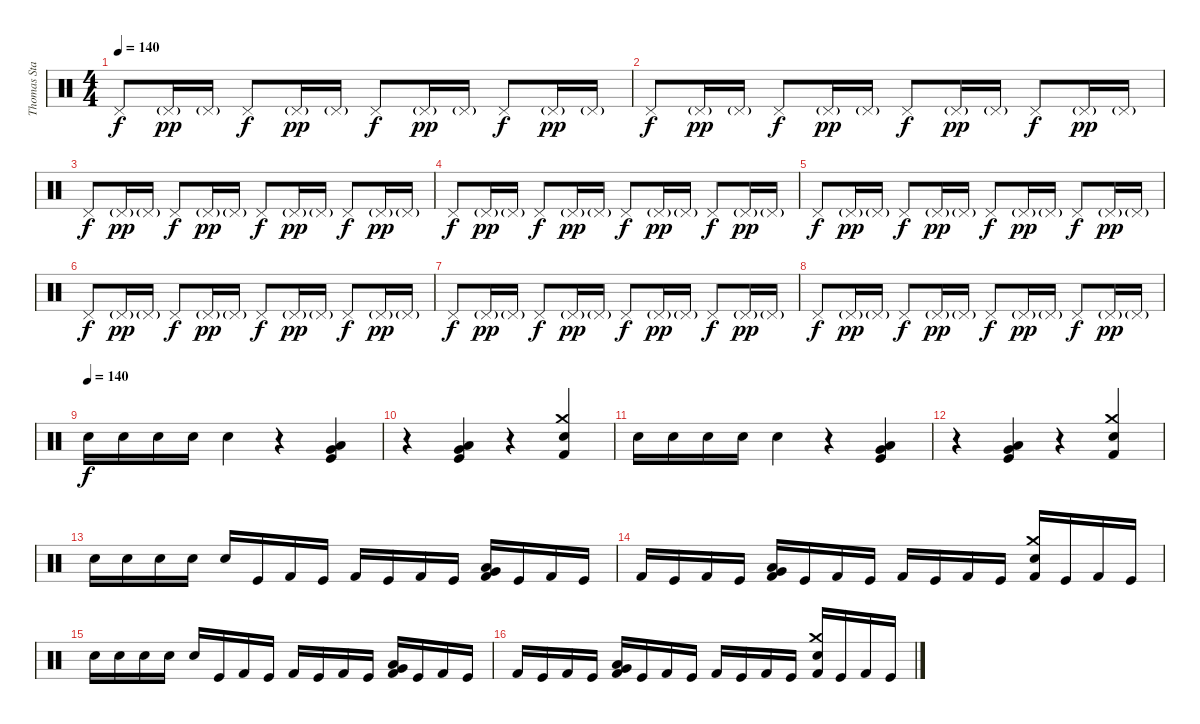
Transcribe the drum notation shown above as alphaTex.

\track ("Thomas Stauch" "Thomas Sta") {instrument percussion}
\staff {score}
\articulation defaults
\ts (4 4)
\tempo 140
\tempo 135
\tempo 140
\clef neutral
\ks c "Pedal Hi-Hat (hit)".8{dy f} "Pedal Hi-Hat (hit)"{g}.16{dy pp} "Pedal Hi-Hat (hit)"{g}.16 "Pedal Hi-Hat (hit)".8{dy f} "Pedal Hi-Hat (hit)"{g}.16{dy pp} "Pedal Hi-Hat (hit)"{g}.16 "Pedal Hi-Hat (hit)".8{dy f} "Pedal Hi-Hat (hit)"{g}.16{dy pp} "Pedal Hi-Hat (hit)"{g}.16 "Pedal Hi-Hat (hit)".8{dy f} "Pedal Hi-Hat (hit)"{g}.16{dy pp} "Pedal Hi-Hat (hit)"{g}.16
|
"Pedal Hi-Hat (hit)".8{dy f} "Pedal Hi-Hat (hit)"{g}.16{dy pp} "Pedal Hi-Hat (hit)"{g}.16 "Pedal Hi-Hat (hit)".8{dy f} "Pedal Hi-Hat (hit)"{g}.16{dy pp} "Pedal Hi-Hat (hit)"{g}.16 "Pedal Hi-Hat (hit)".8{dy f} "Pedal Hi-Hat (hit)"{g}.16{dy pp} "Pedal Hi-Hat (hit)"{g}.16 "Pedal Hi-Hat (hit)".8{dy f} "Pedal Hi-Hat (hit)"{g}.16{dy pp} "Pedal Hi-Hat (hit)"{g}.16 |
"Pedal Hi-Hat (hit)".8{dy f} "Pedal Hi-Hat (hit)"{g}.16{dy pp} "Pedal Hi-Hat (hit)"{g}.16 "Pedal Hi-Hat (hit)".8{dy f} "Pedal Hi-Hat (hit)"{g}.16{dy pp} "Pedal Hi-Hat (hit)"{g}.16 "Pedal Hi-Hat (hit)".8{dy f} "Pedal Hi-Hat (hit)"{g}.16{dy pp} "Pedal Hi-Hat (hit)"{g}.16 "Pedal Hi-Hat (hit)".8{dy f} "Pedal Hi-Hat (hit)"{g}.16{dy pp} "Pedal Hi-Hat (hit)"{g}.16 |
"Pedal Hi-Hat (hit)".8{dy f} "Pedal Hi-Hat (hit)"{g}.16{dy pp} "Pedal Hi-Hat (hit)"{g}.16 "Pedal Hi-Hat (hit)".8{dy f} "Pedal Hi-Hat (hit)"{g}.16{dy pp} "Pedal Hi-Hat (hit)"{g}.16 "Pedal Hi-Hat (hit)".8{dy f} "Pedal Hi-Hat (hit)"{g}.16{dy pp} "Pedal Hi-Hat (hit)"{g}.16 "Pedal Hi-Hat (hit)".8{dy f} "Pedal Hi-Hat (hit)"{g}.16{dy pp} "Pedal Hi-Hat (hit)"{g}.16 |
"Pedal Hi-Hat (hit)".8{dy f} "Pedal Hi-Hat (hit)"{g}.16{dy pp} "Pedal Hi-Hat (hit)"{g}.16 "Pedal Hi-Hat (hit)".8{dy f} "Pedal Hi-Hat (hit)"{g}.16{dy pp} "Pedal Hi-Hat (hit)"{g}.16 "Pedal Hi-Hat (hit)".8{dy f} "Pedal Hi-Hat (hit)"{g}.16{dy pp} "Pedal Hi-Hat (hit)"{g}.16 "Pedal Hi-Hat (hit)".8{dy f} "Pedal Hi-Hat (hit)"{g}.16{dy pp} "Pedal Hi-Hat (hit)"{g}.16 |
"Pedal Hi-Hat (hit)".8{dy f} "Pedal Hi-Hat (hit)"{g}.16{dy pp} "Pedal Hi-Hat (hit)"{g}.16 "Pedal Hi-Hat (hit)".8{dy f} "Pedal Hi-Hat (hit)"{g}.16{dy pp} "Pedal Hi-Hat (hit)"{g}.16 "Pedal Hi-Hat (hit)".8{dy f} "Pedal Hi-Hat (hit)"{g}.16{dy pp} "Pedal Hi-Hat (hit)"{g}.16 "Pedal Hi-Hat (hit)".8{dy f} "Pedal Hi-Hat (hit)"{g}.16{dy pp} "Pedal Hi-Hat (hit)"{g}.16 |
"Pedal Hi-Hat (hit)".8{dy f} "Pedal Hi-Hat (hit)"{g}.16{dy pp} "Pedal Hi-Hat (hit)"{g}.16 "Pedal Hi-Hat (hit)".8{dy f} "Pedal Hi-Hat (hit)"{g}.16{dy pp} "Pedal Hi-Hat (hit)"{g}.16 "Pedal Hi-Hat (hit)".8{dy f} "Pedal Hi-Hat (hit)"{g}.16{dy pp} "Pedal Hi-Hat (hit)"{g}.16 "Pedal Hi-Hat (hit)".8{dy f} "Pedal Hi-Hat (hit)"{g}.16{dy pp} "Pedal Hi-Hat (hit)"{g}.16 |
"Pedal Hi-Hat (hit)".8{dy f} "Pedal Hi-Hat (hit)"{g}.16{dy pp} "Pedal Hi-Hat (hit)"{g}.16 "Pedal Hi-Hat (hit)".8{dy f} "Pedal Hi-Hat (hit)"{g}.16{dy pp} "Pedal Hi-Hat (hit)"{g}.16 "Pedal Hi-Hat (hit)".8{dy f} "Pedal Hi-Hat (hit)"{g}.16{dy pp} "Pedal Hi-Hat (hit)"{g}.16 "Pedal Hi-Hat (hit)".8{dy f} "Pedal Hi-Hat (hit)"{g}.16{dy pp} "Pedal Hi-Hat (hit)"{g}.16 |
\tempo (140)
"Electric Snare (hit)".16{dy f} "Electric Snare (hit)".16 "Electric Snare (hit)".16 "Electric Snare (hit)".16 "Electric Snare (hit)".4 r.4 ("Low Tom (hit)" "Very Low Tom (hit)" "Kick (hit)").4 |
r.4 ("Low Tom (hit)" "Very Low Tom (hit)" "Kick (hit)").4 r.4 ("Crash medium (hit)" "Electric Snare (hit)" "Kick (hit) 2").4 |
"Electric Snare (hit)".16 "Electric Snare (hit)".16 "Electric Snare (hit)".16 "Electric Snare (hit)".16 "Electric Snare (hit)".4 r.4 ("Low Tom (hit)" "Very Low Tom (hit)" "Kick (hit)").4 |
r.4 ("Low Tom (hit)" "Very Low Tom (hit)" "Kick (hit)").4 r.4 ("Crash medium (hit)" "Electric Snare (hit)" "Kick (hit) 2").4 |
"Electric Snare (hit)".16 "Electric Snare (hit)".16 "Electric Snare (hit)".16 "Electric Snare (hit)".16 "Electric Snare (hit)".16 "Kick (hit)".16 "Kick (hit) 2".16 "Kick (hit)".16 "Kick (hit) 2".16 "Kick (hit)".16 "Kick (hit) 2".16 "Kick (hit)".16 ("Low Tom (hit)" "Very Low Tom (hit)" "Kick (hit) 2").16 "Kick (hit)".16 "Kick (hit) 2".16 "Kick (hit)".16 |
"Kick (hit) 2".16 "Kick (hit)".16 "Kick (hit) 2".16 "Kick (hit)".16 ("Low Tom (hit)" "Very Low Tom (hit)" "Kick (hit) 2").16 "Kick (hit)".16 "Kick (hit) 2".16 "Kick (hit)".16 "Kick (hit) 2".16 "Kick (hit)".16 "Kick (hit) 2".16 "Kick (hit)".16 ("Crash medium (hit)" "Electric Snare (hit)" "Kick (hit) 2").16 "Kick (hit)".16 "Kick (hit) 2".16 "Kick (hit)".16 |
"Electric Snare (hit)".16 "Electric Snare (hit)".16 "Electric Snare (hit)".16 "Electric Snare (hit)".16 "Electric Snare (hit)".16 "Kick (hit)".16 "Kick (hit) 2".16 "Kick (hit)".16 "Kick (hit) 2".16 "Kick (hit)".16 "Kick (hit) 2".16 "Kick (hit)".16 ("Low Tom (hit)" "Very Low Tom (hit)" "Kick (hit) 2").16 "Kick (hit)".16 "Kick (hit) 2".16 "Kick (hit)".16 |
"Kick (hit) 2".16 "Kick (hit)".16 "Kick (hit) 2".16 "Kick (hit)".16 ("Low Tom (hit)" "Very Low Tom (hit)" "Kick (hit) 2").16 "Kick (hit)".16 "Kick (hit) 2".16 "Kick (hit)".16 "Kick (hit) 2".16 "Kick (hit)".16 "Kick (hit) 2".16 "Kick (hit)".16 ("Crash medium (hit)" "Electric Snare (hit)" "Kick (hit) 2").16 "Kick (hit)".16 "Kick (hit) 2".16 "Kick (hit)".16
